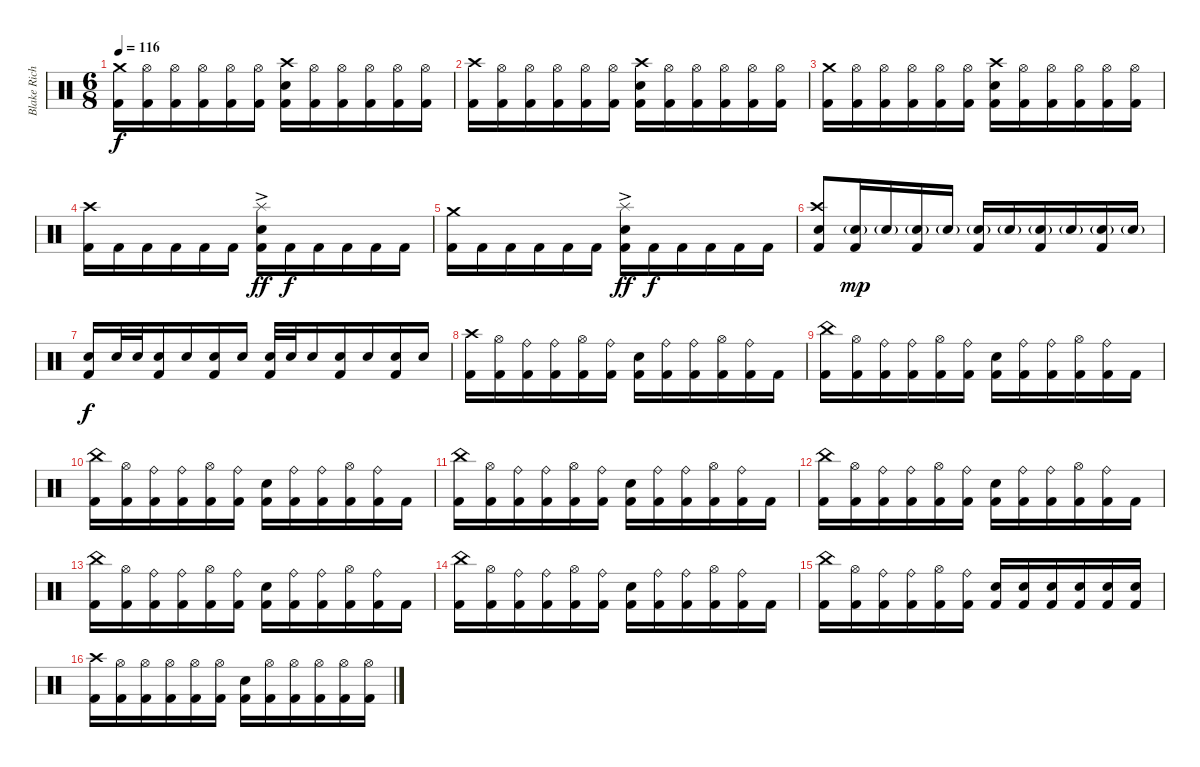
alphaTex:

\track ("Blake Richardson" "Blake Rich") {instrument percussion}
\staff {score}
\articulation defaults
\ts (6 8)
\tempo 116
\clef neutral
\ks c
("Crash medium (hit)" "Kick (hit) 2").16{dy f volume 13} ("Hi-Hat (open)" "Kick (hit) 2").16 ("Hi-Hat (open)" "Kick (hit) 2").16 ("Hi-Hat (open)" "Kick (hit) 2").16 ("Hi-Hat (open)" "Kick (hit) 2").16 ("Hi-Hat (open)" "Kick (hit) 2").16 ("Crash high (hit)" "Electric Snare (hit)" "Kick (hit) 2").16 ("Hi-Hat (open)" "Kick (hit) 2").16 ("Hi-Hat (open)" "Kick (hit) 2").16 ("Hi-Hat (open)" "Kick (hit) 2").16 ("Hi-Hat (open)" "Kick (hit) 2").16 ("Hi-Hat (open)" "Kick (hit) 2").16 |
("Crash high (hit)" "Kick (hit) 2").16 ("Hi-Hat (open)" "Kick (hit) 2").16 ("Hi-Hat (open)" "Kick (hit) 2").16 ("Hi-Hat (open)" "Kick (hit) 2").16 ("Hi-Hat (open)" "Kick (hit) 2").16 ("Hi-Hat (open)" "Kick (hit) 2").16 ("Crash high (hit)" "Electric Snare (hit)" "Kick (hit) 2").16 ("Hi-Hat (open)" "Kick (hit) 2").16 ("Hi-Hat (open)" "Kick (hit) 2").16 ("Hi-Hat (open)" "Kick (hit) 2").16 ("Hi-Hat (open)" "Kick (hit) 2").16 ("Hi-Hat (open)" "Kick (hit) 2").16 |
("Crash medium (hit)" "Kick (hit) 2").16 ("Hi-Hat (open)" "Kick (hit) 2").16 ("Hi-Hat (open)" "Kick (hit) 2").16 ("Hi-Hat (open)" "Kick (hit) 2").16 ("Hi-Hat (open)" "Kick (hit) 2").16 ("Hi-Hat (open)" "Kick (hit) 2").16 ("Crash high (hit)" "Electric Snare (hit)" "Kick (hit) 2").16 ("Hi-Hat (open)" "Kick (hit) 2").16 ("Hi-Hat (open)" "Kick (hit) 2").16 ("Hi-Hat (open)" "Kick (hit) 2").16 ("Hi-Hat (open)" "Kick (hit) 2").16 ("Hi-Hat (open)" "Kick (hit) 2").16 |
("Crash high (hit)" "Kick (hit) 2").16 "Kick (hit) 2".16 "Kick (hit) 2".16 "Kick (hit) 2".16 "Kick (hit) 2".16 "Kick (hit) 2".16 ("Splash (hit)"{ac} "Electric Snare (hit)" "Kick (hit) 2").16{dy ff} "Kick (hit) 2".16{dy f} "Kick (hit) 2".16 "Kick (hit) 2".16 "Kick (hit) 2".16 "Kick (hit) 2".16 |
("Crash medium (hit)" "Kick (hit) 2").16 "Kick (hit) 2".16 "Kick (hit) 2".16 "Kick (hit) 2".16 "Kick (hit) 2".16 "Kick (hit) 2".16 ("Splash (hit)"{ac} "Electric Snare (hit)" "Kick (hit) 2").16{dy ff} "Kick (hit) 2".16{dy f} "Kick (hit) 2".16 "Kick (hit) 2".16 "Kick (hit) 2".16 "Kick (hit) 2".16 |
("Crash high (hit)" "Electric Snare (hit)" "Kick (hit) 2").8 ("Electric Snare (hit)"{g} "Kick (hit) 2").16{dy mp} "Electric Snare (hit)"{g}.16 ("Electric Snare (hit)"{g} "Kick (hit) 2").16 "Electric Snare (hit)"{g}.16 ("Electric Snare (hit)"{g} "Kick (hit) 2").16 "Electric Snare (hit)"{g}.16 ("Electric Snare (hit)"{g} "Kick (hit) 2").16 "Electric Snare (hit)"{g}.16 ("Electric Snare (hit)"{g} "Kick (hit) 2").16 "Electric Snare (hit)"{g}.16 |
("Electric Snare (hit)" "Kick (hit) 2").16{dy f} "Electric Snare (hit)".32 "Electric Snare (hit)".32 ("Electric Snare (hit)" "Kick (hit) 2").16 "Electric Snare (hit)".16 ("Electric Snare (hit)" "Kick (hit) 2").16 "Electric Snare (hit)".16 ("Electric Snare (hit)" "Kick (hit) 2").32 "Electric Snare (hit)".32 "Electric Snare (hit)".16 ("Electric Snare (hit)" "Kick (hit) 2").16 "Electric Snare (hit)".16 ("Electric Snare (hit)" "Kick (hit) 2").16 "Electric Snare (hit)".16 |
("Crash high (hit)" "Kick (hit) 2").16 ("Hi-Hat (open)" "Kick (hit) 2").16 ("Ride (bell)" "Kick (hit) 2").16 ("Ride (bell)" "Kick (hit) 2").16 ("Hi-Hat (open)" "Kick (hit) 2").16 ("Ride (bell)" "Kick (hit) 2").16 ("Electric Snare (hit)" "Kick (hit) 2").16 ("Ride (bell)" "Kick (hit) 2").16 ("Ride (bell)" "Kick (hit) 2").16 ("Hi-Hat (open)" "Kick (hit) 2").16 ("Ride (bell)" "Kick (hit) 2").16 "Kick (hit) 2".16 |
("China (hit)" "Kick (hit) 2").16 ("Hi-Hat (open)" "Kick (hit) 2").16 ("Ride (bell)" "Kick (hit) 2").16 ("Ride (bell)" "Kick (hit) 2").16 ("Hi-Hat (open)" "Kick (hit) 2").16 ("Ride (bell)" "Kick (hit) 2").16 ("Electric Snare (hit)" "Kick (hit) 2").16 ("Ride (bell)" "Kick (hit) 2").16 ("Ride (bell)" "Kick (hit) 2").16 ("Hi-Hat (open)" "Kick (hit) 2").16 ("Ride (bell)" "Kick (hit) 2").16 "Kick (hit) 2".16 |
("China (hit)" "Kick (hit) 2").16 ("Hi-Hat (open)" "Kick (hit) 2").16 ("Ride (bell)" "Kick (hit) 2").16 ("Ride (bell)" "Kick (hit) 2").16 ("Hi-Hat (open)" "Kick (hit) 2").16 ("Ride (bell)" "Kick (hit) 2").16 ("Electric Snare (hit)" "Kick (hit) 2").16 ("Ride (bell)" "Kick (hit) 2").16 ("Ride (bell)" "Kick (hit) 2").16 ("Hi-Hat (open)" "Kick (hit) 2").16 ("Ride (bell)" "Kick (hit) 2").16 "Kick (hit) 2".16 |
("China (hit)" "Kick (hit) 2").16 ("Hi-Hat (open)" "Kick (hit) 2").16 ("Ride (bell)" "Kick (hit) 2").16 ("Ride (bell)" "Kick (hit) 2").16 ("Hi-Hat (open)" "Kick (hit) 2").16 ("Ride (bell)" "Kick (hit) 2").16 ("Electric Snare (hit)" "Kick (hit) 2").16 ("Ride (bell)" "Kick (hit) 2").16 ("Ride (bell)" "Kick (hit) 2").16 ("Hi-Hat (open)" "Kick (hit) 2").16 ("Ride (bell)" "Kick (hit) 2").16 "Kick (hit) 2".16 |
("China (hit)" "Kick (hit) 2").16 ("Hi-Hat (open)" "Kick (hit) 2").16 ("Ride (bell)" "Kick (hit) 2").16 ("Ride (bell)" "Kick (hit) 2").16 ("Hi-Hat (open)" "Kick (hit) 2").16 ("Ride (bell)" "Kick (hit) 2").16 ("Electric Snare (hit)" "Kick (hit) 2").16 ("Ride (bell)" "Kick (hit) 2").16 ("Ride (bell)" "Kick (hit) 2").16 ("Hi-Hat (open)" "Kick (hit) 2").16 ("Ride (bell)" "Kick (hit) 2").16 "Kick (hit) 2".16 |
("China (hit)" "Kick (hit) 2").16 ("Hi-Hat (open)" "Kick (hit) 2").16 ("Ride (bell)" "Kick (hit) 2").16 ("Ride (bell)" "Kick (hit) 2").16 ("Hi-Hat (open)" "Kick (hit) 2").16 ("Ride (bell)" "Kick (hit) 2").16 ("Electric Snare (hit)" "Kick (hit) 2").16 ("Ride (bell)" "Kick (hit) 2").16 ("Ride (bell)" "Kick (hit) 2").16 ("Hi-Hat (open)" "Kick (hit) 2").16 ("Ride (bell)" "Kick (hit) 2").16 "Kick (hit) 2".16 |
("China (hit)" "Kick (hit) 2").16 ("Hi-Hat (open)" "Kick (hit) 2").16 ("Ride (bell)" "Kick (hit) 2").16 ("Ride (bell)" "Kick (hit) 2").16 ("Hi-Hat (open)" "Kick (hit) 2").16 ("Ride (bell)" "Kick (hit) 2").16 ("Electric Snare (hit)" "Kick (hit) 2").16 ("Ride (bell)" "Kick (hit) 2").16 ("Ride (bell)" "Kick (hit) 2").16 ("Hi-Hat (open)" "Kick (hit) 2").16 ("Ride (bell)" "Kick (hit) 2").16 "Kick (hit) 2".16 |
("China (hit)" "Kick (hit) 2").16 ("Hi-Hat (open)" "Kick (hit) 2").16 ("Ride (bell)" "Kick (hit) 2").16 ("Ride (bell)" "Kick (hit) 2").16 ("Hi-Hat (open)" "Kick (hit) 2").16 ("Ride (bell)" "Kick (hit) 2").16 ("Electric Snare (hit)" "Kick (hit) 2").16 ("Electric Snare (hit)" "Kick (hit) 2").16 ("Electric Snare (hit)" "Kick (hit) 2").16 ("Electric Snare (hit)" "Kick (hit) 2").16 ("Electric Snare (hit)" "Kick (hit) 2").16 ("Electric Snare (hit)" "Kick (hit) 2").16 |
("Crash high (hit)" "Kick (hit) 2").16 ("Hi-Hat (open)" "Kick (hit) 2").16 ("Hi-Hat (open)" "Kick (hit) 2").16 ("Hi-Hat (open)" "Kick (hit) 2").16 ("Hi-Hat (open)" "Kick (hit) 2").16 ("Hi-Hat (open)" "Kick (hit) 2").16 ("Electric Snare (hit)" "Kick (hit) 2").16 ("Hi-Hat (open)" "Kick (hit) 2").16 ("Hi-Hat (open)" "Kick (hit) 2").16 ("Hi-Hat (open)" "Kick (hit) 2").16 ("Hi-Hat (open)" "Kick (hit) 2").16 ("Hi-Hat (open)" "Kick (hit) 2").16
